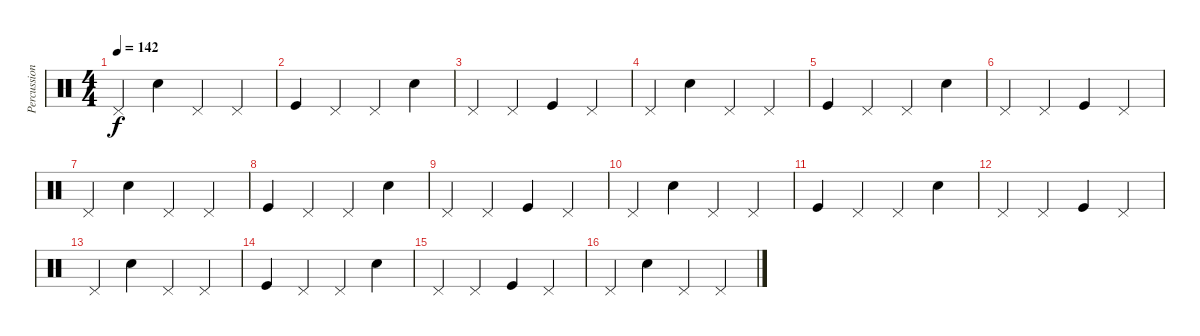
\track ("Percussion" "Percussion") {instrument percussion}
\staff {score}
\articulation defaults
\ts (4 4)
\tempo 142
\clef neutral
\ks c "Pedal Hi-Hat (hit)".4{dy f} "Electric Snare (hit)".4 "Pedal Hi-Hat (hit)".4 "Pedal Hi-Hat (hit)".4
|
"Kick (hit)".4 "Pedal Hi-Hat (hit)".4 "Pedal Hi-Hat (hit)".4 "Electric Snare (hit)".4 |
"Pedal Hi-Hat (hit)".4 "Pedal Hi-Hat (hit)".4 "Kick (hit)".4 "Pedal Hi-Hat (hit)".4 |
"Pedal Hi-Hat (hit)".4 "Electric Snare (hit)".4 "Pedal Hi-Hat (hit)".4 "Pedal Hi-Hat (hit)".4 |
"Kick (hit)".4 "Pedal Hi-Hat (hit)".4 "Pedal Hi-Hat (hit)".4 "Electric Snare (hit)".4 |
"Pedal Hi-Hat (hit)".4 "Pedal Hi-Hat (hit)".4 "Kick (hit)".4 "Pedal Hi-Hat (hit)".4 |
"Pedal Hi-Hat (hit)".4 "Electric Snare (hit)".4 "Pedal Hi-Hat (hit)".4 "Pedal Hi-Hat (hit)".4 |
"Kick (hit)".4 "Pedal Hi-Hat (hit)".4 "Pedal Hi-Hat (hit)".4 "Electric Snare (hit)".4 |
"Pedal Hi-Hat (hit)".4 "Pedal Hi-Hat (hit)".4 "Kick (hit)".4 "Pedal Hi-Hat (hit)".4 |
"Pedal Hi-Hat (hit)".4 "Electric Snare (hit)".4 "Pedal Hi-Hat (hit)".4 "Pedal Hi-Hat (hit)".4 |
"Kick (hit)".4 "Pedal Hi-Hat (hit)".4 "Pedal Hi-Hat (hit)".4 "Electric Snare (hit)".4 |
"Pedal Hi-Hat (hit)".4 "Pedal Hi-Hat (hit)".4 "Kick (hit)".4 "Pedal Hi-Hat (hit)".4 |
"Pedal Hi-Hat (hit)".4 "Electric Snare (hit)".4 "Pedal Hi-Hat (hit)".4 "Pedal Hi-Hat (hit)".4 |
"Kick (hit)".4 "Pedal Hi-Hat (hit)".4 "Pedal Hi-Hat (hit)".4 "Electric Snare (hit)".4 |
"Pedal Hi-Hat (hit)".4 "Pedal Hi-Hat (hit)".4 "Kick (hit)".4 "Pedal Hi-Hat (hit)".4 |
"Pedal Hi-Hat (hit)".4 "Electric Snare (hit)".4 "Pedal Hi-Hat (hit)".4 "Pedal Hi-Hat (hit)".4
